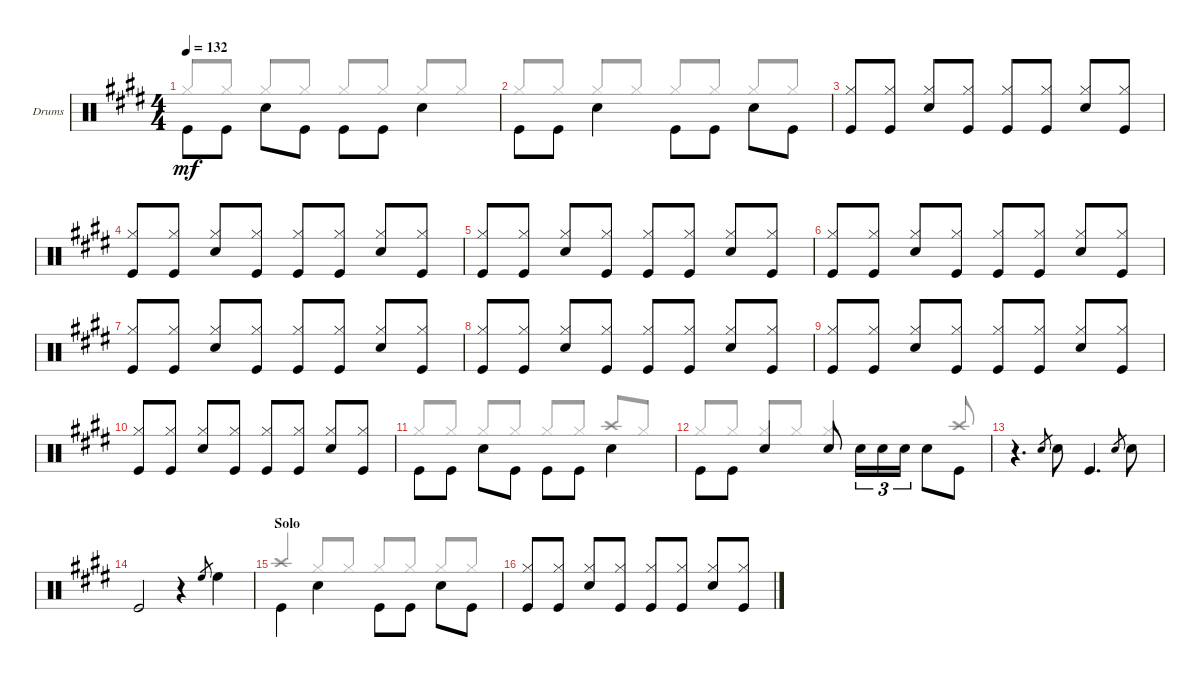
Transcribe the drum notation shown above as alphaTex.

\defaultSystemsLayout 4
\bracketExtendMode groupsimilarinstruments
\firstSystemTrackNameOrientation horizontal
\otherSystemsTrackNameOrientation horizontal
\track ("PETER CRISS" "Drums") {solo instrument percussion}
\staff {score}
\articulation defaults
\voice
\ts (4 4)
\tempo 132
\clef neutral
\ks e "Kick (hit)".8{dy mf beam invert} "Kick (hit)".8 "Snare (hit) 2".8{beam invert} "Kick (hit)".8 "Kick (hit)".8{beam invert} "Kick (hit)".8 "Snare (hit) 2".4{beam invert}
|
"Kick (hit)".8{beam invert} "Kick (hit)".8 "Snare (hit) 2".4{beam invert} "Kick (hit)".8{beam invert} "Kick (hit)".8 "Snare (hit) 2".8{beam invert} "Kick (hit)".8 |
("Kick (hit)" "Hi-Hat (closed)").8{beam invert} ("Kick (hit)" "Hi-Hat (closed)").8 ("Snare (hit) 2" "Hi-Hat (closed)").8{beam invert} ("Kick (hit)" "Hi-Hat (closed)").8 ("Kick (hit)" "Hi-Hat (closed)").8{beam invert} ("Kick (hit)" "Hi-Hat (closed)").8 ("Snare (hit) 2" "Hi-Hat (closed)").8{beam invert} ("Kick (hit)" "Hi-Hat (closed)").8 |
("Kick (hit)" "Hi-Hat (closed)").8{beam invert} ("Kick (hit)" "Hi-Hat (closed)").8 ("Snare (hit) 2" "Hi-Hat (closed)").8{beam invert} ("Kick (hit)" "Hi-Hat (closed)").8 ("Kick (hit)" "Hi-Hat (closed)").8{beam invert} ("Kick (hit)" "Hi-Hat (closed)").8 ("Snare (hit) 2" "Hi-Hat (closed)").8{beam invert} ("Kick (hit)" "Hi-Hat (closed)").8 |
("Kick (hit)" "Hi-Hat (closed)").8{beam invert} ("Kick (hit)" "Hi-Hat (closed)").8 ("Snare (hit) 2" "Hi-Hat (closed)").8{beam invert} ("Kick (hit)" "Hi-Hat (closed)").8 ("Kick (hit)" "Hi-Hat (closed)").8{beam invert} ("Kick (hit)" "Hi-Hat (closed)").8 ("Snare (hit) 2" "Hi-Hat (closed)").8{beam invert} ("Kick (hit)" "Hi-Hat (closed)").8 |
("Kick (hit)" "Hi-Hat (closed)").8{beam invert} ("Kick (hit)" "Hi-Hat (closed)").8 ("Snare (hit) 2" "Hi-Hat (closed)").8{beam invert} ("Kick (hit)" "Hi-Hat (closed)").8 ("Kick (hit)" "Hi-Hat (closed)").8{beam invert} ("Kick (hit)" "Hi-Hat (closed)").8 ("Snare (hit) 2" "Hi-Hat (closed)").8{beam invert} ("Kick (hit)" "Hi-Hat (closed)").8 |
("Kick (hit)" "Hi-Hat (closed)").8{beam invert} ("Kick (hit)" "Hi-Hat (closed)").8 ("Snare (hit) 2" "Hi-Hat (closed)").8{beam invert} ("Kick (hit)" "Hi-Hat (closed)").8 ("Kick (hit)" "Hi-Hat (closed)").8{beam invert} ("Kick (hit)" "Hi-Hat (closed)").8 ("Snare (hit) 2" "Hi-Hat (closed)").8{beam invert} ("Kick (hit)" "Hi-Hat (closed)").8 |
("Kick (hit)" "Hi-Hat (closed)").8{beam invert} ("Kick (hit)" "Hi-Hat (closed)").8 ("Snare (hit) 2" "Hi-Hat (closed)").8{beam invert} ("Kick (hit)" "Hi-Hat (closed)").8 ("Kick (hit)" "Hi-Hat (closed)").8{beam invert} ("Kick (hit)" "Hi-Hat (closed)").8 ("Snare (hit) 2" "Hi-Hat (closed)").8{beam invert} ("Kick (hit)" "Hi-Hat (closed)").8 |
("Kick (hit)" "Hi-Hat (closed)").8{beam invert} ("Kick (hit)" "Hi-Hat (closed)").8 ("Snare (hit) 2" "Hi-Hat (closed)").8{beam invert} ("Kick (hit)" "Hi-Hat (closed)").8 ("Kick (hit)" "Hi-Hat (closed)").8{beam invert} ("Kick (hit)" "Hi-Hat (closed)").8 ("Snare (hit) 2" "Hi-Hat (closed)").8{beam invert} ("Kick (hit)" "Hi-Hat (closed)").8 |
("Kick (hit)" "Hi-Hat (closed)").8{beam invert} ("Kick (hit)" "Hi-Hat (closed)").8 ("Snare (hit) 2" "Hi-Hat (closed)").8{beam invert} ("Kick (hit)" "Hi-Hat (closed)").8 ("Kick (hit)" "Hi-Hat (closed)").8{beam invert} ("Kick (hit)" "Hi-Hat (closed)").8 ("Snare (hit) 2" "Hi-Hat (closed)").8{beam invert} ("Kick (hit)" "Hi-Hat (closed)").8 |
"Kick (hit)".8{beam invert} "Kick (hit)".8 "Snare (hit) 2".8{beam invert} "Kick (hit)".8 "Kick (hit)".8{beam invert} "Kick (hit)".8 "Snare (hit) 2".4{beam invert} |
"Kick (hit)".8{beam invert} "Kick (hit)".8 "Snare (hit) 2".4 "Snare (hit) 2".8 "Snare (hit) 2".16{tu (3 2)} "Snare (hit) 2".16{tu (3 2)} "Snare (hit) 2".16{tu (3 2)} "Snare (hit) 2".8{beam invert} "Kick (hit)".8 |
r.4{d} "Snare (hit) 2".8{gr} "Snare (hit) 2".8 "Kick (hit)".4{d} "Snare (hit) 2".8{gr} "Snare (hit) 2".8 |
"Kick (hit)".2 r.4 "High Floor Tom (hit)".8{gr} "High Floor Tom (hit)".4 |
\section ("" "Solo")
"Kick (hit)".4{beam invert} "Snare (hit) 2".4{beam invert} "Kick (hit)".8{beam invert} "Kick (hit)".8 "Snare (hit) 2".8{beam invert} "Kick (hit)".8 |
("Kick (hit)" "Hi-Hat (closed)").8{beam invert} ("Kick (hit)" "Hi-Hat (closed)").8 ("Snare (hit) 2" "Hi-Hat (closed)").8{beam invert} ("Kick (hit)" "Hi-Hat (closed)").8 ("Kick (hit)" "Hi-Hat (closed)").8{beam invert} ("Kick (hit)" "Hi-Hat (closed)").8 ("Snare (hit) 2" "Hi-Hat (closed)").8{beam invert} ("Kick (hit)" "Hi-Hat (closed)").8
\voice
\clef neutral
\ottava regular
\simile none
\ks e "Hi-Hat (closed)".8{dy mf beam invert} "Hi-Hat (closed)".8 "Hi-Hat (closed)".8{beam invert} "Hi-Hat (closed)".8 "Hi-Hat (closed)".8{beam invert} "Hi-Hat (closed)".8 "Hi-Hat (closed)".8{beam invert} "Hi-Hat (closed)".8
|
"Hi-Hat (closed)".8{beam invert} "Hi-Hat (closed)".8 "Hi-Hat (closed)".8{beam invert} "Hi-Hat (closed)".8 "Hi-Hat (closed)".8{beam invert} "Hi-Hat (closed)".8 "Hi-Hat (closed)".8{beam invert} "Hi-Hat (closed)".8 |
|
|
|
|
|
|
|
|
"Hi-Hat (closed)".8{beam invert} "Hi-Hat (closed)".8 "Hi-Hat (closed)".8{beam invert} "Hi-Hat (closed)".8 "Hi-Hat (closed)".8{beam invert} "Hi-Hat (closed)".8 "Crash high (hit)".8{beam invert} "Hi-Hat (closed)".8 |
"Hi-Hat (closed)".8{beam invert} "Hi-Hat (closed)".8 "Hi-Hat (closed)".8{beam invert} "Hi-Hat (closed)".8 "Hi-Hat (closed)".4{d beam invert} "Crash high (hit)".8{beam invert} |
|
|
"Crash high (hit)".4{beam invert} "Hi-Hat (closed)".8{beam invert} "Hi-Hat (closed)".8 "Hi-Hat (closed)".8{beam invert} "Hi-Hat (closed)".8 "Hi-Hat (closed)".8{beam invert} "Hi-Hat (closed)".8 |
